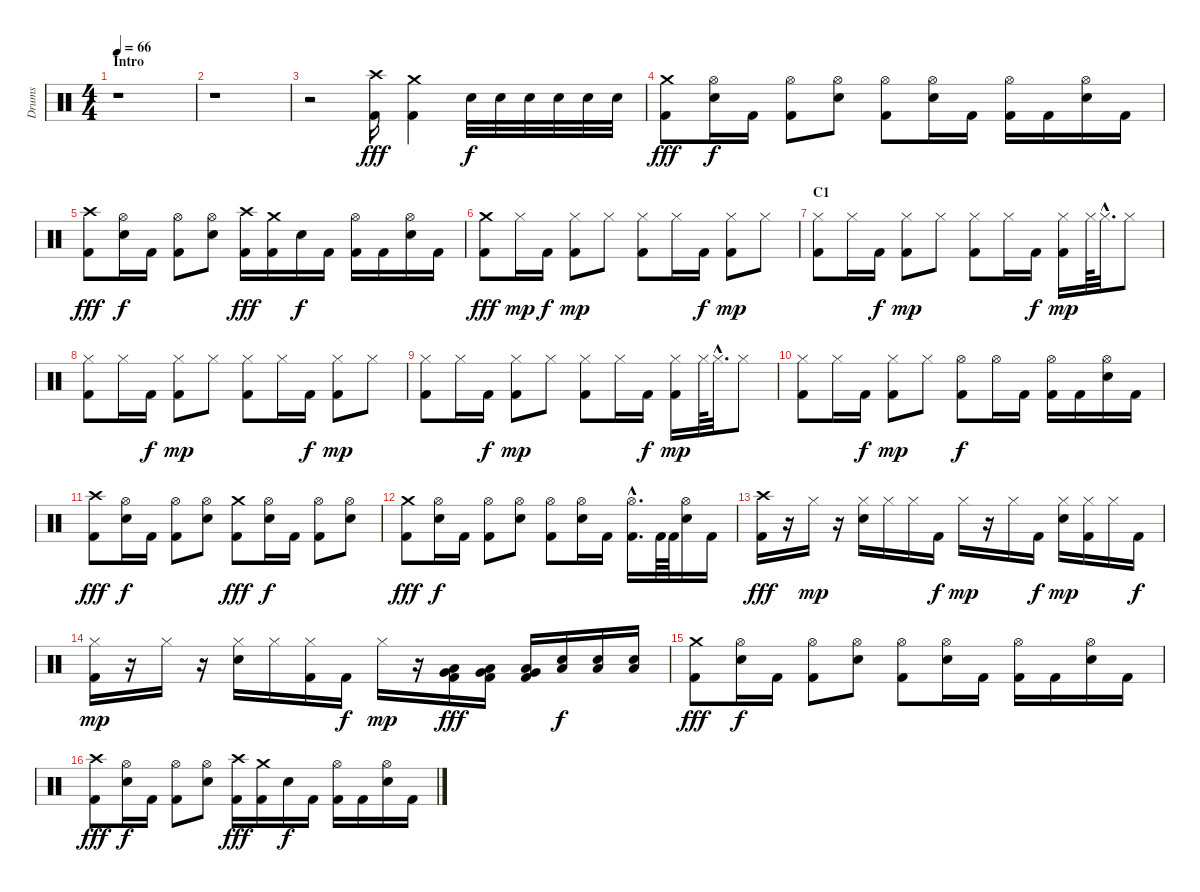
\track ("Drums" "Drums") {instrument percussion}
\staff {score}
\articulation defaults
\ts (4 4)
\section ("" "Intro")
\tempo 66
\clef neutral
\ks c
r.1{dy fff} |
r.1 |
r.2 ("Kick (hit) 2" "Crash high (hit)").16 ("Kick (hit) 2" "Crash medium (hit)").4 "Electric Snare (hit)".32{dy f} "Electric Snare (hit)".32 "Electric Snare (hit)".32 "Electric Snare (hit)".32 "Electric Snare (hit)".32 "Electric Snare (hit)".32 |
("Kick (hit) 2" "Crash medium (hit)").8{dy fff} ("Electric Snare (hit)" "Hi-Hat (open)").16{dy f} "Kick (hit) 2".16 ("Kick (hit) 2" "Hi-Hat (open)").8 ("Electric Snare (hit)" "Hi-Hat (open)").8 ("Kick (hit) 2" "Hi-Hat (open)").8 ("Electric Snare (hit)" "Hi-Hat (open)").16 "Kick (hit) 2".16 ("Kick (hit) 2" "Hi-Hat (open)").16 "Kick (hit) 2".16 ("Electric Snare (hit)" "Hi-Hat (open)").16 "Kick (hit) 2".16 |
("Kick (hit) 2" "Crash high (hit)").8{dy fff} ("Electric Snare (hit)" "Hi-Hat (open)").16{dy f} "Kick (hit) 2".16 ("Kick (hit) 2" "Hi-Hat (open)").8 ("Electric Snare (hit)" "Hi-Hat (open)").8 ("Kick (hit) 2" "Crash high (hit)").16{dy fff} ("Kick (hit) 2" "Crash medium (hit)").16 "Electric Snare (hit)".16{dy f} "Kick (hit) 2".16 ("Kick (hit) 2" "Hi-Hat (open)").16 "Kick (hit) 2".16 ("Electric Snare (hit)" "Hi-Hat (open)").16 "Kick (hit) 2".16 |
("Kick (hit) 2" "Crash medium (hit)").8{dy fff} "Hi-Hat (closed)".16{dy mp} "Kick (hit) 2".16{dy f} ("Kick (hit) 2" "Hi-Hat (closed)").8{dy mp} "Hi-Hat (closed)".8 ("Kick (hit) 2" "Hi-Hat (closed)").8 "Hi-Hat (closed)".16 "Kick (hit) 2".16{dy f} ("Kick (hit) 2" "Hi-Hat (closed)").8{dy mp} "Hi-Hat (closed)".8 |
\section ("" "C1")
("Kick (hit) 2" "Hi-Hat (closed)").8 "Hi-Hat (closed)".16 "Kick (hit) 2".16{dy f} ("Kick (hit) 2" "Hi-Hat (closed)").8{dy mp} "Hi-Hat (closed)".8 ("Kick (hit) 2" "Hi-Hat (closed)").8 "Hi-Hat (closed)".16 "Kick (hit) 2".16{dy f} ("Kick (hit) 2" "Hi-Hat (closed)").16{dy mp} "Hi-Hat (closed)".64 "Hi-Hat (closed)"{hac}.32{d} "Hi-Hat (closed)".8 |
("Kick (hit) 2" "Hi-Hat (closed)").8 "Hi-Hat (closed)".16 "Kick (hit) 2".16{dy f} ("Kick (hit) 2" "Hi-Hat (closed)").8{dy mp} "Hi-Hat (closed)".8 ("Kick (hit) 2" "Hi-Hat (closed)").8 "Hi-Hat (closed)".16 "Kick (hit) 2".16{dy f} ("Kick (hit) 2" "Hi-Hat (closed)").8{dy mp} "Hi-Hat (closed)".8 |
("Kick (hit) 2" "Hi-Hat (closed)").8 "Hi-Hat (closed)".16 "Kick (hit) 2".16{dy f} ("Kick (hit) 2" "Hi-Hat (closed)").8{dy mp} "Hi-Hat (closed)".8 ("Kick (hit) 2" "Hi-Hat (closed)").8 "Hi-Hat (closed)".16 "Kick (hit) 2".16{dy f} ("Kick (hit) 2" "Hi-Hat (closed)").16{dy mp} "Hi-Hat (closed)".64 "Hi-Hat (closed)"{hac}.32{d} "Hi-Hat (closed)".8 |
("Kick (hit) 2" "Hi-Hat (closed)").8 "Hi-Hat (closed)".16 "Kick (hit) 2".16{dy f} ("Kick (hit) 2" "Hi-Hat (closed)").8{dy mp} "Hi-Hat (closed)".8 ("Kick (hit) 2" "Hi-Hat (open)").8{dy f} "Hi-Hat (open)".16 "Kick (hit) 2".16 ("Kick (hit) 2" "Hi-Hat (open)").16 "Kick (hit) 2".16 ("Electric Snare (hit)" "Hi-Hat (open)").16 "Kick (hit) 2".16 |
("Kick (hit) 2" "Crash high (hit)").8{dy fff} ("Electric Snare (hit)" "Hi-Hat (open)").16{dy f} "Kick (hit) 2".16 ("Kick (hit) 2" "Hi-Hat (open)").8 ("Electric Snare (hit)" "Hi-Hat (open)").8 ("Kick (hit) 2" "Crash medium (hit)").8{dy fff} ("Electric Snare (hit)" "Hi-Hat (open)").16{dy f} "Kick (hit) 2".16 ("Kick (hit) 2" "Hi-Hat (open)").8 ("Electric Snare (hit)" "Hi-Hat (open)").8 |
("Kick (hit) 2" "Crash medium (hit)").8{dy fff} ("Electric Snare (hit)" "Hi-Hat (open)").16{dy f} "Kick (hit) 2".16 ("Kick (hit) 2" "Hi-Hat (open)").8 ("Electric Snare (hit)" "Hi-Hat (open)").8 ("Kick (hit) 2" "Hi-Hat (open)").8 ("Electric Snare (hit)" "Hi-Hat (open)").16 "Kick (hit) 2".16 ("Kick (hit) 2"{hac} "Hi-Hat (open)"{hac}).16{d} "Kick (hit) 2".64 "Kick (hit) 2".64 ("Electric Snare (hit)" "Hi-Hat (open)").16 "Kick (hit) 2".16 |
("Kick (hit) 2" "Crash high (hit)").16{dy fff} r.16 "Hi-Hat (closed)".16{dy mp} r.16 ("Electric Snare (hit)" "Hi-Hat (closed)").16 "Hi-Hat (closed)".16 "Hi-Hat (closed)".16 "Kick (hit) 2".16{dy f} "Hi-Hat (closed)".16{dy mp} r.16 "Hi-Hat (closed)".16 "Kick (hit) 2".16{dy f} ("Electric Snare (hit)" "Hi-Hat (closed)").16{dy mp} ("Kick (hit) 2" "Hi-Hat (closed)").16 "Hi-Hat (closed)".16 "Kick (hit) 2".16{dy f} |
("Kick (hit) 2" "Hi-Hat (closed)").16{dy mp} r.16 "Hi-Hat (closed)".16 r.16 ("Electric Snare (hit)" "Hi-Hat (closed)").16 "Hi-Hat (closed)".16 ("Kick (hit) 2" "Hi-Hat (closed)").16 "Kick (hit) 2".16{dy f} "Hi-Hat (closed)".16{dy mp} r.16 ("Kick (hit) 2" "Very Low Tom (hit)" "Low Floor Tom (hit)").16{dy fff} ("Kick (hit) 2" "Very Low Tom (hit)" "Low Floor Tom (hit)").16 ("Kick (hit) 2" "Very Low Tom (hit)" "Low Floor Tom (hit)").16 ("Electric Snare (hit)" "Low Floor Tom (hit)").16{dy f} ("Electric Snare (hit)" "Low Floor Tom (hit)").16 ("Electric Snare (hit)" "Low Floor Tom (hit)").16 |
("Kick (hit) 2" "Crash medium (hit)").8{dy fff} ("Electric Snare (hit)" "Hi-Hat (open)").16{dy f} "Kick (hit) 2".16 ("Kick (hit) 2" "Hi-Hat (open)").8 ("Electric Snare (hit)" "Hi-Hat (open)").8 ("Kick (hit) 2" "Hi-Hat (open)").8 ("Electric Snare (hit)" "Hi-Hat (open)").16 "Kick (hit) 2".16 ("Kick (hit) 2" "Hi-Hat (open)").16 "Kick (hit) 2".16 ("Electric Snare (hit)" "Hi-Hat (open)").16 "Kick (hit) 2".16 |
("Kick (hit) 2" "Crash high (hit)").8{dy fff} ("Electric Snare (hit)" "Hi-Hat (open)").16{dy f} "Kick (hit) 2".16 ("Kick (hit) 2" "Hi-Hat (open)").8 ("Electric Snare (hit)" "Hi-Hat (open)").8 ("Kick (hit) 2" "Crash high (hit)").16{dy fff} ("Kick (hit) 2" "Crash medium (hit)").16 "Electric Snare (hit)".16{dy f} "Kick (hit) 2".16 ("Kick (hit) 2" "Hi-Hat (open)").16 "Kick (hit) 2".16 ("Electric Snare (hit)" "Hi-Hat (open)").16 "Kick (hit) 2".16
